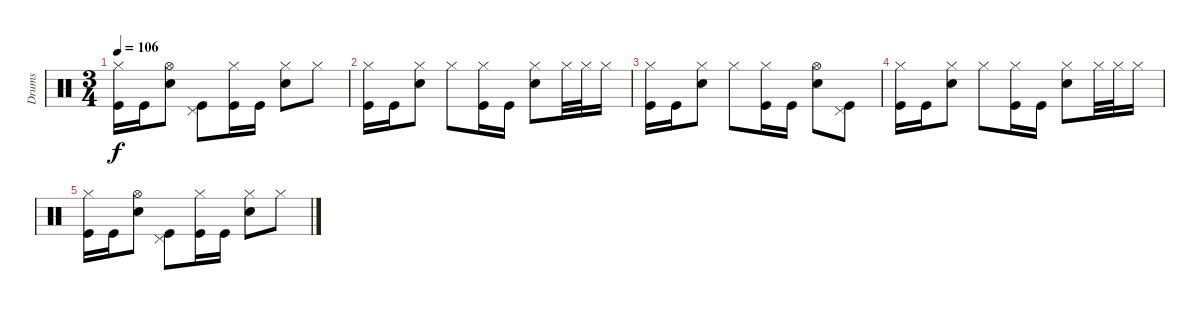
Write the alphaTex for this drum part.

\track ("Drums" "Drums") {instrument percussion}
\staff {score}
\articulation defaults
\ts (3 4)
\tempo 106
\clef neutral
\ks c
("Hi-Hat (closed)" "Kick (hit)").16{dy f} "Kick (hit)".16 ("Hi-Hat (open)" "Snare (hit) 2").8 ("Pedal Hi-Hat (hit)" "Kick (hit)").8 ("Hi-Hat (closed)" "Kick (hit)").16 "Kick (hit)".16 ("Hi-Hat (closed)" "Snare (hit) 2").8 "Hi-Hat (closed)".8 |
("Hi-Hat (closed)" "Kick (hit)").16 "Kick (hit)".16 ("Hi-Hat (closed)" "Snare (hit) 2").8 "Hi-Hat (closed)".8 ("Hi-Hat (closed)" "Kick (hit)").16 "Kick (hit)".16 ("Hi-Hat (closed)" "Snare (hit) 2").8 "Hi-Hat (closed)".32 "Hi-Hat (closed)".32 "Hi-Hat (closed)".16 |
("Hi-Hat (closed)" "Kick (hit)").16 "Kick (hit)".16 ("Hi-Hat (closed)" "Snare (hit) 2").8 "Hi-Hat (closed)".8 ("Hi-Hat (closed)" "Kick (hit)").16 "Kick (hit)".16 ("Hi-Hat (open)" "Snare (hit) 2").8 ("Pedal Hi-Hat (hit)" "Kick (hit)").8 |
("Hi-Hat (closed)" "Kick (hit)").16 "Kick (hit)".16 ("Hi-Hat (closed)" "Snare (hit) 2").8 "Hi-Hat (closed)".8 ("Hi-Hat (closed)" "Kick (hit)").16 "Kick (hit)".16 ("Hi-Hat (closed)" "Snare (hit) 2").8 "Hi-Hat (closed)".32 "Hi-Hat (closed)".32 "Hi-Hat (closed)".16 |
("Hi-Hat (closed)" "Kick (hit)").16 "Kick (hit)".16 ("Hi-Hat (open)" "Snare (hit) 2").8 ("Pedal Hi-Hat (hit)" "Kick (hit)").8 ("Hi-Hat (closed)" "Kick (hit)").16 "Kick (hit)".16 ("Hi-Hat (closed)" "Snare (hit) 2").8 "Hi-Hat (closed)".8
